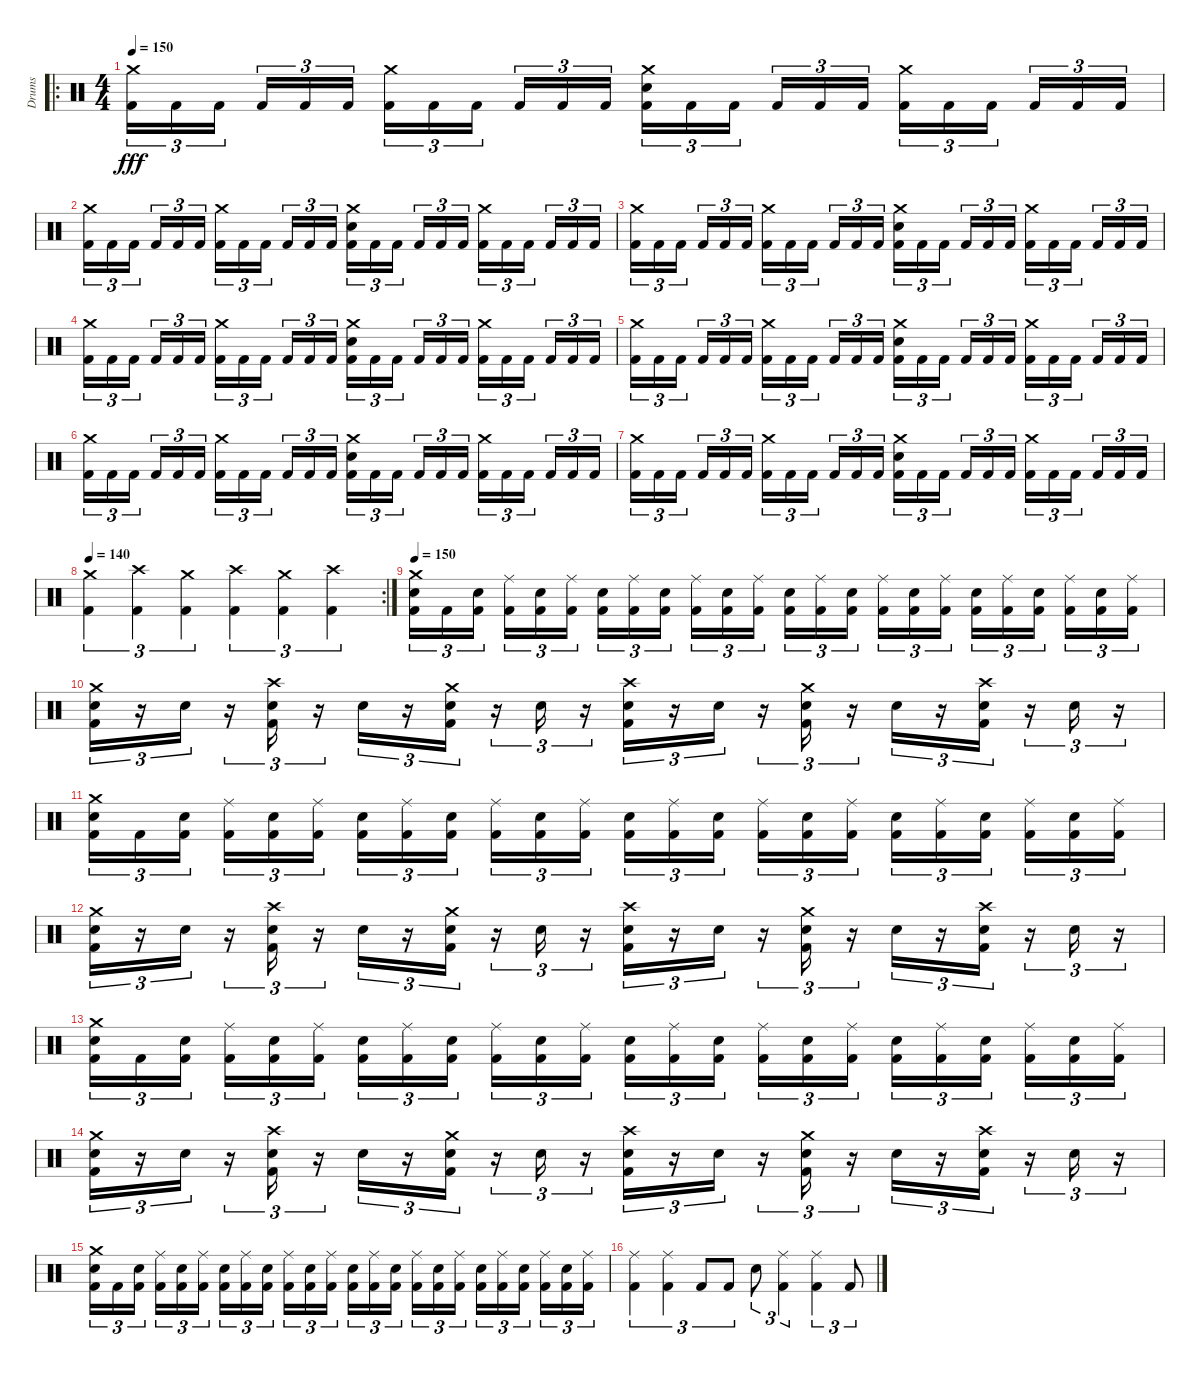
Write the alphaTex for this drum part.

\track ("Drums" "Drums") {instrument percussion}
\staff {score}
\articulation defaults
\ro
\ts (4 4)
\tempo 150
\clef neutral
\ks c
("Crash medium (hit)" "Kick (hit) 2").16{tu (3 2) dy fff} "Kick (hit) 2".16{tu (3 2)} "Kick (hit) 2".16{tu (3 2) beam splitsecondary} "Kick (hit) 2".16{tu (3 2)} "Kick (hit) 2".16{tu (3 2)} "Kick (hit) 2".16{tu (3 2)} ("Crash medium (hit)" "Kick (hit) 2").16{tu (3 2)} "Kick (hit) 2".16{tu (3 2)} "Kick (hit) 2".16{tu (3 2) beam splitsecondary} "Kick (hit) 2".16{tu (3 2)} "Kick (hit) 2".16{tu (3 2)} "Kick (hit) 2".16{tu (3 2)} ("Crash medium (hit)" "Electric Snare (hit)" "Kick (hit) 2").16{tu (3 2)} "Kick (hit) 2".16{tu (3 2)} "Kick (hit) 2".16{tu (3 2) beam splitsecondary} "Kick (hit) 2".16{tu (3 2)} "Kick (hit) 2".16{tu (3 2)} "Kick (hit) 2".16{tu (3 2)} ("Crash medium (hit)" "Kick (hit) 2").16{tu (3 2)} "Kick (hit) 2".16{tu (3 2)} "Kick (hit) 2".16{tu (3 2) beam splitsecondary} "Kick (hit) 2".16{tu (3 2)} "Kick (hit) 2".16{tu (3 2)} "Kick (hit) 2".16{tu (3 2)} |
("Crash medium (hit)" "Kick (hit) 2").16{tu (3 2)} "Kick (hit) 2".16{tu (3 2)} "Kick (hit) 2".16{tu (3 2) beam splitsecondary} "Kick (hit) 2".16{tu (3 2)} "Kick (hit) 2".16{tu (3 2)} "Kick (hit) 2".16{tu (3 2)} ("Crash medium (hit)" "Kick (hit) 2").16{tu (3 2)} "Kick (hit) 2".16{tu (3 2)} "Kick (hit) 2".16{tu (3 2) beam splitsecondary} "Kick (hit) 2".16{tu (3 2)} "Kick (hit) 2".16{tu (3 2)} "Kick (hit) 2".16{tu (3 2)} ("Crash medium (hit)" "Electric Snare (hit)" "Kick (hit) 2").16{tu (3 2)} "Kick (hit) 2".16{tu (3 2)} "Kick (hit) 2".16{tu (3 2) beam splitsecondary} "Kick (hit) 2".16{tu (3 2)} "Kick (hit) 2".16{tu (3 2)} "Kick (hit) 2".16{tu (3 2)} ("Crash medium (hit)" "Kick (hit) 2").16{tu (3 2)} "Kick (hit) 2".16{tu (3 2)} "Kick (hit) 2".16{tu (3 2) beam splitsecondary} "Kick (hit) 2".16{tu (3 2)} "Kick (hit) 2".16{tu (3 2)} "Kick (hit) 2".16{tu (3 2)} |
("Crash medium (hit)" "Kick (hit) 2").16{tu (3 2)} "Kick (hit) 2".16{tu (3 2)} "Kick (hit) 2".16{tu (3 2) beam splitsecondary} "Kick (hit) 2".16{tu (3 2)} "Kick (hit) 2".16{tu (3 2)} "Kick (hit) 2".16{tu (3 2)} ("Crash medium (hit)" "Kick (hit) 2").16{tu (3 2)} "Kick (hit) 2".16{tu (3 2)} "Kick (hit) 2".16{tu (3 2) beam splitsecondary} "Kick (hit) 2".16{tu (3 2)} "Kick (hit) 2".16{tu (3 2)} "Kick (hit) 2".16{tu (3 2)} ("Crash medium (hit)" "Electric Snare (hit)" "Kick (hit) 2").16{tu (3 2)} "Kick (hit) 2".16{tu (3 2)} "Kick (hit) 2".16{tu (3 2) beam splitsecondary} "Kick (hit) 2".16{tu (3 2)} "Kick (hit) 2".16{tu (3 2)} "Kick (hit) 2".16{tu (3 2)} ("Crash medium (hit)" "Kick (hit) 2").16{tu (3 2)} "Kick (hit) 2".16{tu (3 2)} "Kick (hit) 2".16{tu (3 2) beam splitsecondary} "Kick (hit) 2".16{tu (3 2)} "Kick (hit) 2".16{tu (3 2)} "Kick (hit) 2".16{tu (3 2)} |
("Crash medium (hit)" "Kick (hit) 2").16{tu (3 2)} "Kick (hit) 2".16{tu (3 2)} "Kick (hit) 2".16{tu (3 2) beam splitsecondary} "Kick (hit) 2".16{tu (3 2)} "Kick (hit) 2".16{tu (3 2)} "Kick (hit) 2".16{tu (3 2)} ("Crash medium (hit)" "Kick (hit) 2").16{tu (3 2)} "Kick (hit) 2".16{tu (3 2)} "Kick (hit) 2".16{tu (3 2) beam splitsecondary} "Kick (hit) 2".16{tu (3 2)} "Kick (hit) 2".16{tu (3 2)} "Kick (hit) 2".16{tu (3 2)} ("Crash medium (hit)" "Electric Snare (hit)" "Kick (hit) 2").16{tu (3 2)} "Kick (hit) 2".16{tu (3 2)} "Kick (hit) 2".16{tu (3 2) beam splitsecondary} "Kick (hit) 2".16{tu (3 2)} "Kick (hit) 2".16{tu (3 2)} "Kick (hit) 2".16{tu (3 2)} ("Crash medium (hit)" "Kick (hit) 2").16{tu (3 2)} "Kick (hit) 2".16{tu (3 2)} "Kick (hit) 2".16{tu (3 2) beam splitsecondary} "Kick (hit) 2".16{tu (3 2)} "Kick (hit) 2".16{tu (3 2)} "Kick (hit) 2".16{tu (3 2)} |
("Crash medium (hit)" "Kick (hit) 2").16{tu (3 2)} "Kick (hit) 2".16{tu (3 2)} "Kick (hit) 2".16{tu (3 2) beam splitsecondary} "Kick (hit) 2".16{tu (3 2)} "Kick (hit) 2".16{tu (3 2)} "Kick (hit) 2".16{tu (3 2)} ("Crash medium (hit)" "Kick (hit) 2").16{tu (3 2)} "Kick (hit) 2".16{tu (3 2)} "Kick (hit) 2".16{tu (3 2) beam splitsecondary} "Kick (hit) 2".16{tu (3 2)} "Kick (hit) 2".16{tu (3 2)} "Kick (hit) 2".16{tu (3 2)} ("Crash medium (hit)" "Electric Snare (hit)" "Kick (hit) 2").16{tu (3 2)} "Kick (hit) 2".16{tu (3 2)} "Kick (hit) 2".16{tu (3 2) beam splitsecondary} "Kick (hit) 2".16{tu (3 2)} "Kick (hit) 2".16{tu (3 2)} "Kick (hit) 2".16{tu (3 2)} ("Crash medium (hit)" "Kick (hit) 2").16{tu (3 2)} "Kick (hit) 2".16{tu (3 2)} "Kick (hit) 2".16{tu (3 2) beam splitsecondary} "Kick (hit) 2".16{tu (3 2)} "Kick (hit) 2".16{tu (3 2)} "Kick (hit) 2".16{tu (3 2)} |
("Crash medium (hit)" "Kick (hit) 2").16{tu (3 2)} "Kick (hit) 2".16{tu (3 2)} "Kick (hit) 2".16{tu (3 2) beam splitsecondary} "Kick (hit) 2".16{tu (3 2)} "Kick (hit) 2".16{tu (3 2)} "Kick (hit) 2".16{tu (3 2)} ("Crash medium (hit)" "Kick (hit) 2").16{tu (3 2)} "Kick (hit) 2".16{tu (3 2)} "Kick (hit) 2".16{tu (3 2) beam splitsecondary} "Kick (hit) 2".16{tu (3 2)} "Kick (hit) 2".16{tu (3 2)} "Kick (hit) 2".16{tu (3 2)} ("Crash medium (hit)" "Electric Snare (hit)" "Kick (hit) 2").16{tu (3 2)} "Kick (hit) 2".16{tu (3 2)} "Kick (hit) 2".16{tu (3 2) beam splitsecondary} "Kick (hit) 2".16{tu (3 2)} "Kick (hit) 2".16{tu (3 2)} "Kick (hit) 2".16{tu (3 2)} ("Crash medium (hit)" "Kick (hit) 2").16{tu (3 2)} "Kick (hit) 2".16{tu (3 2)} "Kick (hit) 2".16{tu (3 2) beam splitsecondary} "Kick (hit) 2".16{tu (3 2)} "Kick (hit) 2".16{tu (3 2)} "Kick (hit) 2".16{tu (3 2)} |
("Crash medium (hit)" "Kick (hit) 2").16{tu (3 2)} "Kick (hit) 2".16{tu (3 2)} "Kick (hit) 2".16{tu (3 2) beam splitsecondary} "Kick (hit) 2".16{tu (3 2)} "Kick (hit) 2".16{tu (3 2)} "Kick (hit) 2".16{tu (3 2)} ("Crash medium (hit)" "Kick (hit) 2").16{tu (3 2)} "Kick (hit) 2".16{tu (3 2)} "Kick (hit) 2".16{tu (3 2) beam splitsecondary} "Kick (hit) 2".16{tu (3 2)} "Kick (hit) 2".16{tu (3 2)} "Kick (hit) 2".16{tu (3 2)} ("Crash medium (hit)" "Electric Snare (hit)" "Kick (hit) 2").16{tu (3 2)} "Kick (hit) 2".16{tu (3 2)} "Kick (hit) 2".16{tu (3 2) beam splitsecondary} "Kick (hit) 2".16{tu (3 2)} "Kick (hit) 2".16{tu (3 2)} "Kick (hit) 2".16{tu (3 2)} ("Crash medium (hit)" "Kick (hit) 2").16{tu (3 2)} "Kick (hit) 2".16{tu (3 2)} "Kick (hit) 2".16{tu (3 2) beam splitsecondary} "Kick (hit) 2".16{tu (3 2)} "Kick (hit) 2".16{tu (3 2)} "Kick (hit) 2".16{tu (3 2)} |
\rc 2
\tempo 140
("Crash medium (hit)" "Kick (hit) 2").4{tu (3 2)} ("Crash high (hit)" "Kick (hit) 2").4{tu (3 2)} ("Crash medium (hit)" "Kick (hit) 2").4{tu (3 2)} ("Crash high (hit)" "Kick (hit) 2").4{tu (3 2)} ("Crash medium (hit)" "Kick (hit) 2").4{tu (3 2)} ("Crash high (hit)" "Kick (hit) 2").4{tu (3 2)} |
\tempo 150
("Crash medium (hit)" "Electric Snare (hit)" "Kick (hit) 2").16{tu (3 2)} "Kick (hit) 2".16{tu (3 2)} ("Electric Snare (hit)" "Kick (hit) 2").16{tu (3 2) beam splitsecondary} ("Ride (middle)" "Kick (hit) 2").16{tu (3 2)} ("Electric Snare (hit)" "Kick (hit) 2").16{tu (3 2)} ("Ride (middle)" "Kick (hit) 2").16{tu (3 2)} ("Electric Snare (hit)" "Kick (hit) 2").16{tu (3 2)} ("Ride (middle)" "Kick (hit) 2").16{tu (3 2)} ("Electric Snare (hit)" "Kick (hit) 2").16{tu (3 2) beam splitsecondary} ("Ride (middle)" "Kick (hit) 2").16{tu (3 2)} ("Electric Snare (hit)" "Kick (hit) 2").16{tu (3 2)} ("Ride (middle)" "Kick (hit) 2").16{tu (3 2)} ("Electric Snare (hit)" "Kick (hit) 2").16{tu (3 2)} ("Ride (middle)" "Kick (hit) 2").16{tu (3 2)} ("Electric Snare (hit)" "Kick (hit) 2").16{tu (3 2) beam splitsecondary} ("Ride (middle)" "Kick (hit) 2").16{tu (3 2)} ("Electric Snare (hit)" "Kick (hit) 2").16{tu (3 2)} ("Ride (middle)" "Kick (hit) 2").16{tu (3 2)} ("Electric Snare (hit)" "Kick (hit) 2").16{tu (3 2)} ("Ride (middle)" "Kick (hit) 2").16{tu (3 2)} ("Electric Snare (hit)" "Kick (hit) 2").16{tu (3 2) beam splitsecondary} ("Ride (middle)" "Kick (hit) 2").16{tu (3 2)} ("Electric Snare (hit)" "Kick (hit) 2").16{tu (3 2)} ("Ride (middle)" "Kick (hit) 2").16{tu (3 2)} |
("Crash medium (hit)" "Electric Snare (hit)" "Kick (hit) 2").16{tu (3 2)} r.16{tu (3 2)} "Electric Snare (hit)".16{tu (3 2)} r.16{tu (3 2)} ("Crash high (hit)" "Electric Snare (hit)" "Kick (hit) 2").16{tu (3 2)} r.16{tu (3 2)} "Electric Snare (hit)".16{tu (3 2)} r.16{tu (3 2)} ("Crash medium (hit)" "Electric Snare (hit)" "Kick (hit) 2").16{tu (3 2)} r.16{tu (3 2)} "Electric Snare (hit)".16{tu (3 2)} r.16{tu (3 2)} ("Crash high (hit)" "Electric Snare (hit)" "Kick (hit) 2").16{tu (3 2)} r.16{tu (3 2)} "Electric Snare (hit)".16{tu (3 2)} r.16{tu (3 2)} ("Crash medium (hit)" "Electric Snare (hit)" "Kick (hit) 2").16{tu (3 2)} r.16{tu (3 2)} "Electric Snare (hit)".16{tu (3 2)} r.16{tu (3 2)} ("Crash high (hit)" "Electric Snare (hit)" "Kick (hit) 2").16{tu (3 2)} r.16{tu (3 2)} "Electric Snare (hit)".16{tu (3 2)} r.16{tu (3 2)} |
("Crash medium (hit)" "Electric Snare (hit)" "Kick (hit) 2").16{tu (3 2)} "Kick (hit) 2".16{tu (3 2)} ("Electric Snare (hit)" "Kick (hit) 2").16{tu (3 2) beam splitsecondary} ("Ride (middle)" "Kick (hit) 2").16{tu (3 2)} ("Electric Snare (hit)" "Kick (hit) 2").16{tu (3 2)} ("Ride (middle)" "Kick (hit) 2").16{tu (3 2)} ("Electric Snare (hit)" "Kick (hit) 2").16{tu (3 2)} ("Ride (middle)" "Kick (hit) 2").16{tu (3 2)} ("Electric Snare (hit)" "Kick (hit) 2").16{tu (3 2) beam splitsecondary} ("Ride (middle)" "Kick (hit) 2").16{tu (3 2)} ("Electric Snare (hit)" "Kick (hit) 2").16{tu (3 2)} ("Ride (middle)" "Kick (hit) 2").16{tu (3 2)} ("Electric Snare (hit)" "Kick (hit) 2").16{tu (3 2)} ("Ride (middle)" "Kick (hit) 2").16{tu (3 2)} ("Electric Snare (hit)" "Kick (hit) 2").16{tu (3 2) beam splitsecondary} ("Ride (middle)" "Kick (hit) 2").16{tu (3 2)} ("Electric Snare (hit)" "Kick (hit) 2").16{tu (3 2)} ("Ride (middle)" "Kick (hit) 2").16{tu (3 2)} ("Electric Snare (hit)" "Kick (hit) 2").16{tu (3 2)} ("Ride (middle)" "Kick (hit) 2").16{tu (3 2)} ("Electric Snare (hit)" "Kick (hit) 2").16{tu (3 2) beam splitsecondary} ("Ride (middle)" "Kick (hit) 2").16{tu (3 2)} ("Electric Snare (hit)" "Kick (hit) 2").16{tu (3 2)} ("Ride (middle)" "Kick (hit) 2").16{tu (3 2)} |
("Crash medium (hit)" "Electric Snare (hit)" "Kick (hit) 2").16{tu (3 2)} r.16{tu (3 2)} "Electric Snare (hit)".16{tu (3 2)} r.16{tu (3 2)} ("Crash high (hit)" "Electric Snare (hit)" "Kick (hit) 2").16{tu (3 2)} r.16{tu (3 2)} "Electric Snare (hit)".16{tu (3 2)} r.16{tu (3 2)} ("Crash medium (hit)" "Electric Snare (hit)" "Kick (hit) 2").16{tu (3 2)} r.16{tu (3 2)} "Electric Snare (hit)".16{tu (3 2)} r.16{tu (3 2)} ("Crash high (hit)" "Electric Snare (hit)" "Kick (hit) 2").16{tu (3 2)} r.16{tu (3 2)} "Electric Snare (hit)".16{tu (3 2)} r.16{tu (3 2)} ("Crash medium (hit)" "Electric Snare (hit)" "Kick (hit) 2").16{tu (3 2)} r.16{tu (3 2)} "Electric Snare (hit)".16{tu (3 2)} r.16{tu (3 2)} ("Crash high (hit)" "Electric Snare (hit)" "Kick (hit) 2").16{tu (3 2)} r.16{tu (3 2)} "Electric Snare (hit)".16{tu (3 2)} r.16{tu (3 2)} |
("Crash medium (hit)" "Electric Snare (hit)" "Kick (hit) 2").16{tu (3 2)} "Kick (hit) 2".16{tu (3 2)} ("Electric Snare (hit)" "Kick (hit) 2").16{tu (3 2) beam splitsecondary} ("Ride (middle)" "Kick (hit) 2").16{tu (3 2)} ("Electric Snare (hit)" "Kick (hit) 2").16{tu (3 2)} ("Ride (middle)" "Kick (hit) 2").16{tu (3 2)} ("Electric Snare (hit)" "Kick (hit) 2").16{tu (3 2)} ("Ride (middle)" "Kick (hit) 2").16{tu (3 2)} ("Electric Snare (hit)" "Kick (hit) 2").16{tu (3 2) beam splitsecondary} ("Ride (middle)" "Kick (hit) 2").16{tu (3 2)} ("Electric Snare (hit)" "Kick (hit) 2").16{tu (3 2)} ("Ride (middle)" "Kick (hit) 2").16{tu (3 2)} ("Electric Snare (hit)" "Kick (hit) 2").16{tu (3 2)} ("Ride (middle)" "Kick (hit) 2").16{tu (3 2)} ("Electric Snare (hit)" "Kick (hit) 2").16{tu (3 2) beam splitsecondary} ("Ride (middle)" "Kick (hit) 2").16{tu (3 2)} ("Electric Snare (hit)" "Kick (hit) 2").16{tu (3 2)} ("Ride (middle)" "Kick (hit) 2").16{tu (3 2)} ("Electric Snare (hit)" "Kick (hit) 2").16{tu (3 2)} ("Ride (middle)" "Kick (hit) 2").16{tu (3 2)} ("Electric Snare (hit)" "Kick (hit) 2").16{tu (3 2) beam splitsecondary} ("Ride (middle)" "Kick (hit) 2").16{tu (3 2)} ("Electric Snare (hit)" "Kick (hit) 2").16{tu (3 2)} ("Ride (middle)" "Kick (hit) 2").16{tu (3 2)} |
("Crash medium (hit)" "Electric Snare (hit)" "Kick (hit) 2").16{tu (3 2)} r.16{tu (3 2)} "Electric Snare (hit)".16{tu (3 2)} r.16{tu (3 2)} ("Crash high (hit)" "Electric Snare (hit)" "Kick (hit) 2").16{tu (3 2)} r.16{tu (3 2)} "Electric Snare (hit)".16{tu (3 2)} r.16{tu (3 2)} ("Crash medium (hit)" "Electric Snare (hit)" "Kick (hit) 2").16{tu (3 2)} r.16{tu (3 2)} "Electric Snare (hit)".16{tu (3 2)} r.16{tu (3 2)} ("Crash high (hit)" "Electric Snare (hit)" "Kick (hit) 2").16{tu (3 2)} r.16{tu (3 2)} "Electric Snare (hit)".16{tu (3 2)} r.16{tu (3 2)} ("Crash medium (hit)" "Electric Snare (hit)" "Kick (hit) 2").16{tu (3 2)} r.16{tu (3 2)} "Electric Snare (hit)".16{tu (3 2)} r.16{tu (3 2)} ("Crash high (hit)" "Electric Snare (hit)" "Kick (hit) 2").16{tu (3 2)} r.16{tu (3 2)} "Electric Snare (hit)".16{tu (3 2)} r.16{tu (3 2)} |
("Crash medium (hit)" "Electric Snare (hit)" "Kick (hit) 2").16{tu (3 2)} "Kick (hit) 2".16{tu (3 2)} ("Electric Snare (hit)" "Kick (hit) 2").16{tu (3 2) beam splitsecondary} ("Ride (middle)" "Kick (hit) 2").16{tu (3 2)} ("Electric Snare (hit)" "Kick (hit) 2").16{tu (3 2)} ("Ride (middle)" "Kick (hit) 2").16{tu (3 2)} ("Electric Snare (hit)" "Kick (hit) 2").16{tu (3 2)} ("Ride (middle)" "Kick (hit) 2").16{tu (3 2)} ("Electric Snare (hit)" "Kick (hit) 2").16{tu (3 2) beam splitsecondary} ("Ride (middle)" "Kick (hit) 2").16{tu (3 2)} ("Electric Snare (hit)" "Kick (hit) 2").16{tu (3 2)} ("Ride (middle)" "Kick (hit) 2").16{tu (3 2)} ("Electric Snare (hit)" "Kick (hit) 2").16{tu (3 2)} ("Ride (middle)" "Kick (hit) 2").16{tu (3 2)} ("Electric Snare (hit)" "Kick (hit) 2").16{tu (3 2) beam splitsecondary} ("Ride (middle)" "Kick (hit) 2").16{tu (3 2)} ("Electric Snare (hit)" "Kick (hit) 2").16{tu (3 2)} ("Ride (middle)" "Kick (hit) 2").16{tu (3 2)} ("Electric Snare (hit)" "Kick (hit) 2").16{tu (3 2)} ("Ride (middle)" "Kick (hit) 2").16{tu (3 2)} ("Electric Snare (hit)" "Kick (hit) 2").16{tu (3 2) beam splitsecondary} ("Ride (middle)" "Kick (hit) 2").16{tu (3 2)} ("Electric Snare (hit)" "Kick (hit) 2").16{tu (3 2)} ("Ride (middle)" "Kick (hit) 2").16{tu (3 2)} |
("Ride (middle)" "Kick (hit) 2").4{tu (3 2)} ("Ride (middle)" "Kick (hit) 2").4{tu (3 2)} "Kick (hit) 2".8{tu (3 2)} "Kick (hit) 2".8{tu (3 2)} "Electric Snare (hit)".8{tu (3 2)} ("Ride (middle)" "Kick (hit) 2").4{tu (3 2)} ("Ride (middle)" "Kick (hit) 2").4{tu (3 2)} "Kick (hit) 2".8{tu (3 2)}
